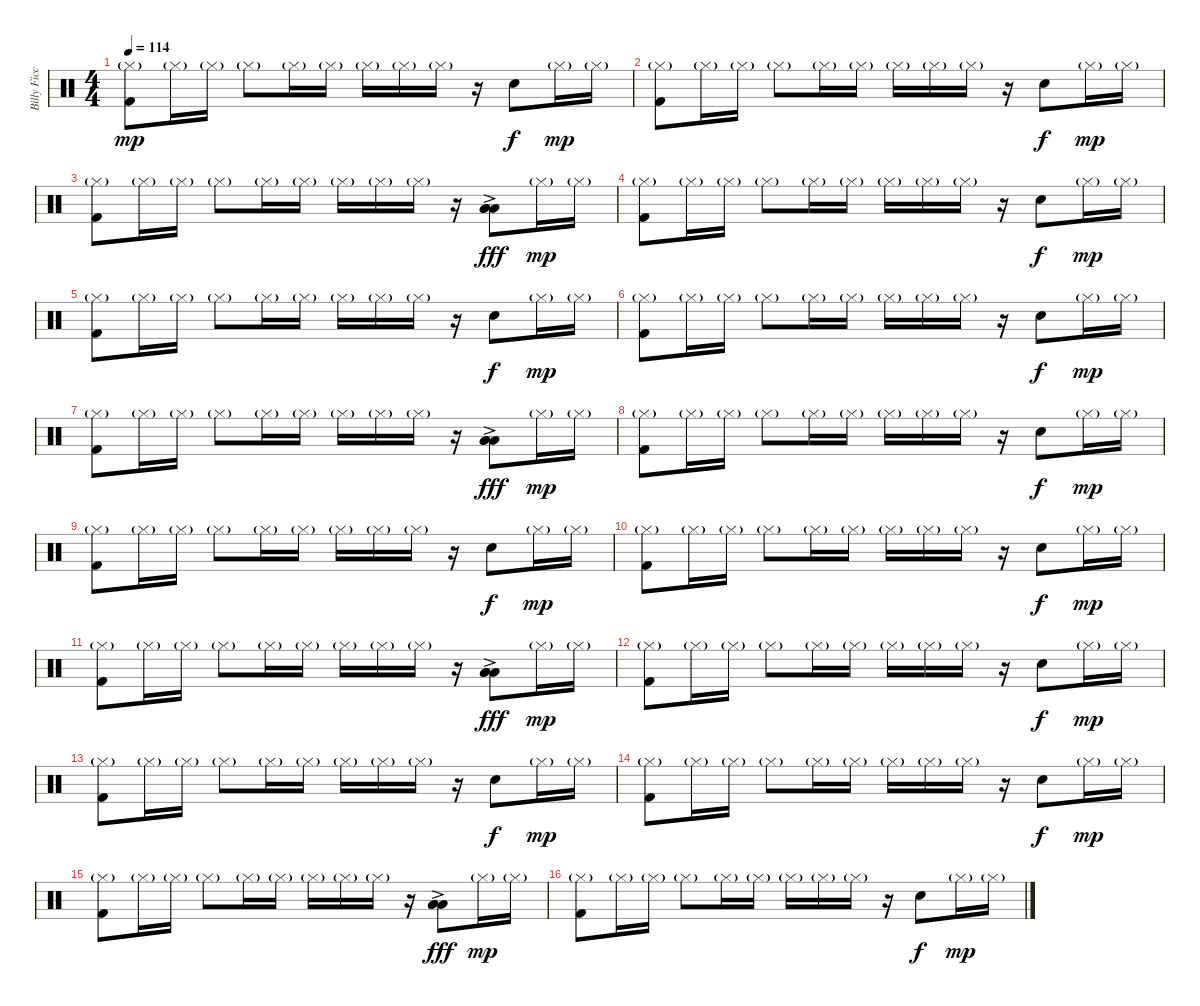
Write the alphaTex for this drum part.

\track ("Billy Ficca" "Billy Ficc") {instrument percussion}
\staff {score}
\articulation defaults
\ts (4 4)
\tempo 114
\clef neutral
\ks c
("Hi-Hat (closed)"{g} "Kick (hit) 2").8{dy mp} "Hi-Hat (closed)"{g}.16 "Hi-Hat (closed)"{g}.16 "Hi-Hat (closed)"{g}.8 "Hi-Hat (closed)"{g}.16 "Hi-Hat (closed)"{g}.16 "Hi-Hat (closed)"{g}.16 "Hi-Hat (closed)"{g}.16 "Hi-Hat (closed)"{g}.16 r.16 "Electric Snare (hit)".8{dy f} "Hi-Hat (closed)"{g}.16{dy mp} "Hi-Hat (closed)"{g}.16 |
("Hi-Hat (closed)"{g} "Kick (hit) 2").8 "Hi-Hat (closed)"{g}.16 "Hi-Hat (closed)"{g}.16 "Hi-Hat (closed)"{g}.8 "Hi-Hat (closed)"{g}.16 "Hi-Hat (closed)"{g}.16 "Hi-Hat (closed)"{g}.16 "Hi-Hat (closed)"{g}.16 "Hi-Hat (closed)"{g}.16 r.16 "Electric Snare (hit)".8{dy f} "Hi-Hat (closed)"{g}.16{dy mp} "Hi-Hat (closed)"{g}.16 |
("Hi-Hat (closed)"{g} "Kick (hit) 2").8 "Hi-Hat (closed)"{g}.16 "Hi-Hat (closed)"{g}.16 "Hi-Hat (closed)"{g}.8 "Hi-Hat (closed)"{g}.16 "Hi-Hat (closed)"{g}.16 "Hi-Hat (closed)"{g}.16 "Hi-Hat (closed)"{g}.16 "Hi-Hat (closed)"{g}.16 r.16 ("Low Floor Tom (hit)" "Low Floor Tom (hit)" "Low Floor Tom (hit)"{ac}).8{dy fff} "Hi-Hat (closed)"{g}.16{dy mp} "Hi-Hat (closed)"{g}.16 |
("Hi-Hat (closed)"{g} "Kick (hit) 2").8 "Hi-Hat (closed)"{g}.16 "Hi-Hat (closed)"{g}.16 "Hi-Hat (closed)"{g}.8 "Hi-Hat (closed)"{g}.16 "Hi-Hat (closed)"{g}.16 "Hi-Hat (closed)"{g}.16 "Hi-Hat (closed)"{g}.16 "Hi-Hat (closed)"{g}.16 r.16 "Electric Snare (hit)".8{dy f} "Hi-Hat (closed)"{g}.16{dy mp} "Hi-Hat (closed)"{g}.16 |
("Hi-Hat (closed)"{g} "Kick (hit) 2").8 "Hi-Hat (closed)"{g}.16 "Hi-Hat (closed)"{g}.16 "Hi-Hat (closed)"{g}.8 "Hi-Hat (closed)"{g}.16 "Hi-Hat (closed)"{g}.16 "Hi-Hat (closed)"{g}.16 "Hi-Hat (closed)"{g}.16 "Hi-Hat (closed)"{g}.16 r.16 "Electric Snare (hit)".8{dy f} "Hi-Hat (closed)"{g}.16{dy mp} "Hi-Hat (closed)"{g}.16 |
("Hi-Hat (closed)"{g} "Kick (hit) 2").8 "Hi-Hat (closed)"{g}.16 "Hi-Hat (closed)"{g}.16 "Hi-Hat (closed)"{g}.8 "Hi-Hat (closed)"{g}.16 "Hi-Hat (closed)"{g}.16 "Hi-Hat (closed)"{g}.16 "Hi-Hat (closed)"{g}.16 "Hi-Hat (closed)"{g}.16 r.16 "Electric Snare (hit)".8{dy f} "Hi-Hat (closed)"{g}.16{dy mp} "Hi-Hat (closed)"{g}.16 |
("Hi-Hat (closed)"{g} "Kick (hit) 2").8 "Hi-Hat (closed)"{g}.16 "Hi-Hat (closed)"{g}.16 "Hi-Hat (closed)"{g}.8 "Hi-Hat (closed)"{g}.16 "Hi-Hat (closed)"{g}.16 "Hi-Hat (closed)"{g}.16 "Hi-Hat (closed)"{g}.16 "Hi-Hat (closed)"{g}.16 r.16 ("Low Floor Tom (hit)" "Low Floor Tom (hit)" "Low Floor Tom (hit)"{ac}).8{dy fff} "Hi-Hat (closed)"{g}.16{dy mp} "Hi-Hat (closed)"{g}.16 |
("Hi-Hat (closed)"{g} "Kick (hit) 2").8 "Hi-Hat (closed)"{g}.16 "Hi-Hat (closed)"{g}.16 "Hi-Hat (closed)"{g}.8 "Hi-Hat (closed)"{g}.16 "Hi-Hat (closed)"{g}.16 "Hi-Hat (closed)"{g}.16 "Hi-Hat (closed)"{g}.16 "Hi-Hat (closed)"{g}.16 r.16 "Electric Snare (hit)".8{dy f} "Hi-Hat (closed)"{g}.16{dy mp} "Hi-Hat (closed)"{g}.16 |
("Hi-Hat (closed)"{g} "Kick (hit) 2").8 "Hi-Hat (closed)"{g}.16 "Hi-Hat (closed)"{g}.16 "Hi-Hat (closed)"{g}.8 "Hi-Hat (closed)"{g}.16 "Hi-Hat (closed)"{g}.16 "Hi-Hat (closed)"{g}.16 "Hi-Hat (closed)"{g}.16 "Hi-Hat (closed)"{g}.16 r.16 "Electric Snare (hit)".8{dy f} "Hi-Hat (closed)"{g}.16{dy mp} "Hi-Hat (closed)"{g}.16 |
("Hi-Hat (closed)"{g} "Kick (hit) 2").8 "Hi-Hat (closed)"{g}.16 "Hi-Hat (closed)"{g}.16 "Hi-Hat (closed)"{g}.8 "Hi-Hat (closed)"{g}.16 "Hi-Hat (closed)"{g}.16 "Hi-Hat (closed)"{g}.16 "Hi-Hat (closed)"{g}.16 "Hi-Hat (closed)"{g}.16 r.16 "Electric Snare (hit)".8{dy f} "Hi-Hat (closed)"{g}.16{dy mp} "Hi-Hat (closed)"{g}.16 |
("Hi-Hat (closed)"{g} "Kick (hit) 2").8 "Hi-Hat (closed)"{g}.16 "Hi-Hat (closed)"{g}.16 "Hi-Hat (closed)"{g}.8 "Hi-Hat (closed)"{g}.16 "Hi-Hat (closed)"{g}.16 "Hi-Hat (closed)"{g}.16 "Hi-Hat (closed)"{g}.16 "Hi-Hat (closed)"{g}.16 r.16 ("Low Floor Tom (hit)" "Low Floor Tom (hit)" "Low Floor Tom (hit)"{ac}).8{dy fff} "Hi-Hat (closed)"{g}.16{dy mp} "Hi-Hat (closed)"{g}.16 |
("Hi-Hat (closed)"{g} "Kick (hit) 2").8 "Hi-Hat (closed)"{g}.16 "Hi-Hat (closed)"{g}.16 "Hi-Hat (closed)"{g}.8 "Hi-Hat (closed)"{g}.16 "Hi-Hat (closed)"{g}.16 "Hi-Hat (closed)"{g}.16 "Hi-Hat (closed)"{g}.16 "Hi-Hat (closed)"{g}.16 r.16 "Electric Snare (hit)".8{dy f} "Hi-Hat (closed)"{g}.16{dy mp} "Hi-Hat (closed)"{g}.16 |
("Hi-Hat (closed)"{g} "Kick (hit) 2").8 "Hi-Hat (closed)"{g}.16 "Hi-Hat (closed)"{g}.16 "Hi-Hat (closed)"{g}.8 "Hi-Hat (closed)"{g}.16 "Hi-Hat (closed)"{g}.16 "Hi-Hat (closed)"{g}.16 "Hi-Hat (closed)"{g}.16 "Hi-Hat (closed)"{g}.16 r.16 "Electric Snare (hit)".8{dy f} "Hi-Hat (closed)"{g}.16{dy mp} "Hi-Hat (closed)"{g}.16 |
("Hi-Hat (closed)"{g} "Kick (hit) 2").8 "Hi-Hat (closed)"{g}.16 "Hi-Hat (closed)"{g}.16 "Hi-Hat (closed)"{g}.8 "Hi-Hat (closed)"{g}.16 "Hi-Hat (closed)"{g}.16 "Hi-Hat (closed)"{g}.16 "Hi-Hat (closed)"{g}.16 "Hi-Hat (closed)"{g}.16 r.16 "Electric Snare (hit)".8{dy f} "Hi-Hat (closed)"{g}.16{dy mp} "Hi-Hat (closed)"{g}.16 |
("Hi-Hat (closed)"{g} "Kick (hit) 2").8 "Hi-Hat (closed)"{g}.16 "Hi-Hat (closed)"{g}.16 "Hi-Hat (closed)"{g}.8 "Hi-Hat (closed)"{g}.16 "Hi-Hat (closed)"{g}.16 "Hi-Hat (closed)"{g}.16 "Hi-Hat (closed)"{g}.16 "Hi-Hat (closed)"{g}.16 r.16 ("Low Floor Tom (hit)" "Low Floor Tom (hit)" "Low Floor Tom (hit)"{ac}).8{dy fff} "Hi-Hat (closed)"{g}.16{dy mp} "Hi-Hat (closed)"{g}.16 |
("Hi-Hat (closed)"{g} "Kick (hit) 2").8 "Hi-Hat (closed)"{g}.16 "Hi-Hat (closed)"{g}.16 "Hi-Hat (closed)"{g}.8 "Hi-Hat (closed)"{g}.16 "Hi-Hat (closed)"{g}.16 "Hi-Hat (closed)"{g}.16 "Hi-Hat (closed)"{g}.16 "Hi-Hat (closed)"{g}.16 r.16 "Electric Snare (hit)".8{dy f} "Hi-Hat (closed)"{g}.16{dy mp} "Hi-Hat (closed)"{g}.16
